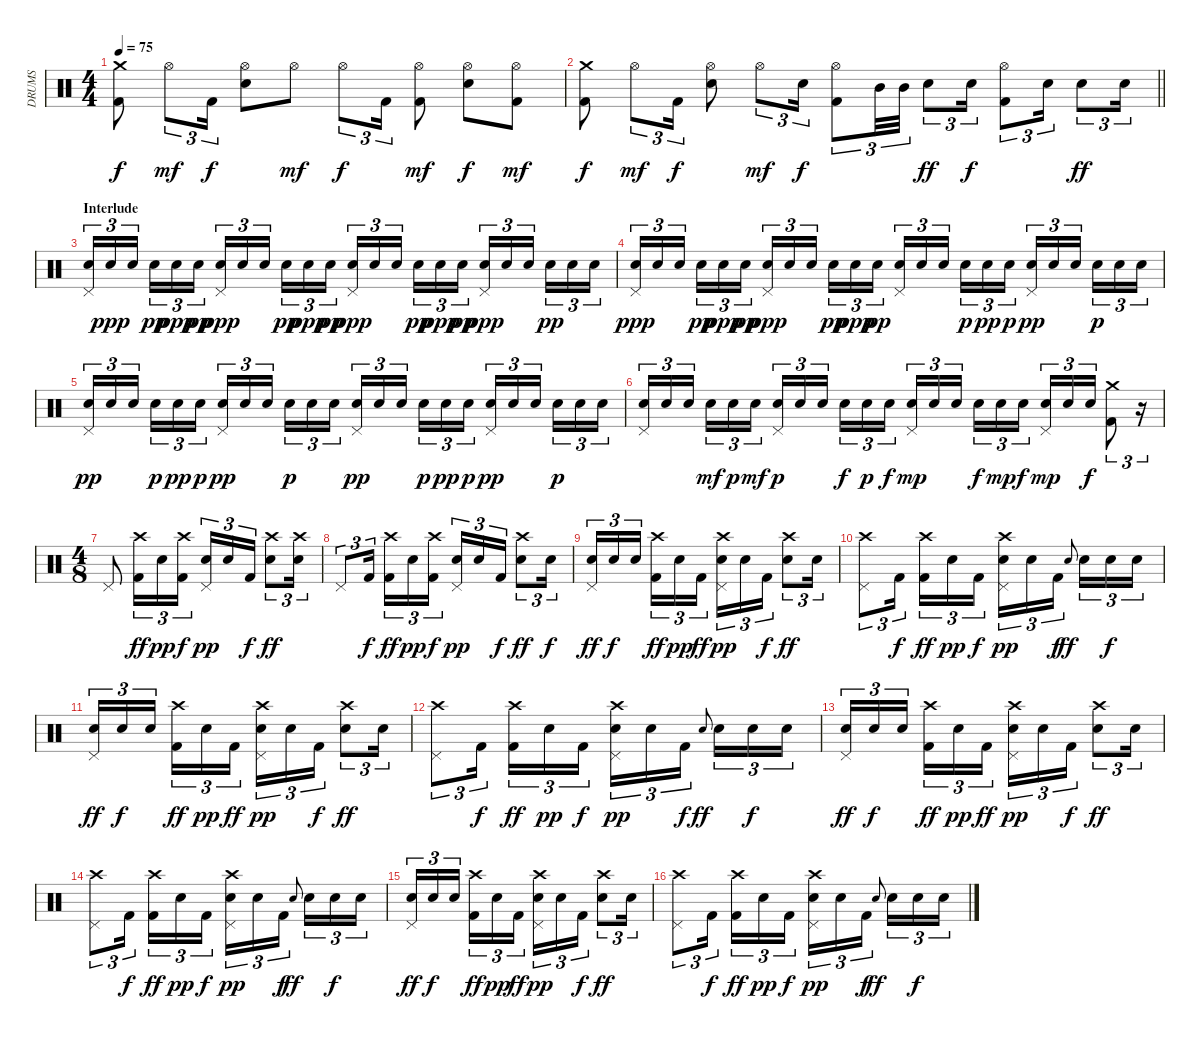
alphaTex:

\track ("DRUMS" "DRUMS") {instrument percussion}
\staff {score}
\articulation defaults
\ts (4 4)
\tempo 75
\clef neutral
\ks c
("Crash medium (hit)" "Kick (hit) 2").8{dy f} "Hi-Hat (open)".8{tu (3 2) dy mf} "Kick (hit) 2".16{tu (3 2) dy f} ("Hi-Hat (open)" "Snare (hit) 2").8 "Hi-Hat (open)".8{dy mf} "Hi-Hat (open)".8{tu (3 2) dy f} "Kick (hit) 2".16{tu (3 2)} ("Hi-Hat (open)" "Kick (hit) 2").8{dy mf} ("Hi-Hat (open)" "Snare (hit) 2").8{dy f} ("Hi-Hat (open)" "Kick (hit) 2").8{dy mf} |
\barLineRight lightlight
("Crash medium (hit)" "Kick (hit) 2").8{dy f} "Hi-Hat (open)".8{tu (3 2) dy mf} "Kick (hit) 2".16{tu (3 2) dy f} ("Hi-Hat (open)" "Snare (hit) 2").8 "Hi-Hat (open)".8{tu (3 2) dy mf} "Snare (hit) 2".16{tu (3 2) dy f} ("Hi-Hat (open)" "Kick (hit) 2").8{tu (3 2)} "Mid Tom (hit)".32{tu (3 2)} "Mid Tom (hit)".32{tu (3 2)} "Electric Snare (hit)".8{tu (3 2) dy ff} "Snare (hit) 2".16{tu (3 2) dy f} ("Hi-Hat (open)" "Kick (hit) 2").8{tu (3 2)} "Snare (hit) 2".16{tu (3 2)} "Electric Snare (hit)".8{tu (3 2) dy ff} "Snare (hit) 2".16{tu (3 2)} |
\section ("" "Interlude")
("Pedal Hi-Hat (hit)" "Electric Snare (hit)").16{tu (3 2)} "Snare (hit) 2".16{tu (3 2) dy ppp} "Electric Snare (hit)".16{tu (3 2) beam splitsecondary} "Snare (hit) 2".16{tu (3 2) dy pp} "Electric Snare (hit)".16{tu (3 2) dy ppp} "Snare (hit) 2".16{tu (3 2) dy pp} ("Pedal Hi-Hat (hit)" "Electric Snare (hit)").16{tu (3 2) dy ppp} "Snare (hit) 2".16{tu (3 2)} "Electric Snare (hit)".16{tu (3 2) beam splitsecondary} "Snare (hit) 2".16{tu (3 2) dy pp} "Electric Snare (hit)".16{tu (3 2) dy ppp} "Snare (hit) 2".16{tu (3 2) dy pp} ("Pedal Hi-Hat (hit)" "Electric Snare (hit)").16{tu (3 2) dy ppp} "Snare (hit) 2".16{tu (3 2)} "Electric Snare (hit)".16{tu (3 2) beam splitsecondary} "Snare (hit) 2".16{tu (3 2) dy pp} "Electric Snare (hit)".16{tu (3 2) dy ppp} "Snare (hit) 2".16{tu (3 2) dy pp} ("Pedal Hi-Hat (hit)" "Electric Snare (hit)").16{tu (3 2) dy ppp} "Snare (hit) 2".16{tu (3 2)} "Electric Snare (hit)".16{tu (3 2) beam splitsecondary} "Snare (hit) 2".16{tu (3 2) dy pp} "Electric Snare (hit)".16{tu (3 2)} "Snare (hit) 2".16{tu (3 2)} |
("Pedal Hi-Hat (hit)" "Electric Snare (hit)").16{tu (3 2) dy ppp} "Snare (hit) 2".16{tu (3 2)} "Electric Snare (hit)".16{tu (3 2) beam splitsecondary} "Snare (hit) 2".16{tu (3 2) dy pp} "Electric Snare (hit)".16{tu (3 2) dy ppp} "Snare (hit) 2".16{tu (3 2) dy pp} ("Pedal Hi-Hat (hit)" "Electric Snare (hit)").16{tu (3 2) dy ppp} "Snare (hit) 2".16{tu (3 2)} "Electric Snare (hit)".16{tu (3 2) beam splitsecondary} "Snare (hit) 2".16{tu (3 2) dy pp} "Electric Snare (hit)".16{tu (3 2) dy ppp} "Snare (hit) 2".16{tu (3 2) dy pp} ("Pedal Hi-Hat (hit)" "Electric Snare (hit)").16{tu (3 2)} "Snare (hit) 2".16{tu (3 2)} "Electric Snare (hit)".16{tu (3 2) beam splitsecondary} "Snare (hit) 2".16{tu (3 2) dy p} "Electric Snare (hit)".16{tu (3 2) dy pp} "Snare (hit) 2".16{tu (3 2) dy p} ("Pedal Hi-Hat (hit)" "Electric Snare (hit)").16{tu (3 2) dy pp} "Snare (hit) 2".16{tu (3 2)} "Electric Snare (hit)".16{tu (3 2) beam splitsecondary} "Snare (hit) 2".16{tu (3 2) dy p} "Electric Snare (hit)".16{tu (3 2)} "Snare (hit) 2".16{tu (3 2)} |
("Pedal Hi-Hat (hit)" "Electric Snare (hit)").16{tu (3 2) dy pp} "Snare (hit) 2".16{tu (3 2)} "Electric Snare (hit)".16{tu (3 2) beam splitsecondary} "Snare (hit) 2".16{tu (3 2) dy p} "Electric Snare (hit)".16{tu (3 2) dy pp} "Snare (hit) 2".16{tu (3 2) dy p} ("Pedal Hi-Hat (hit)" "Electric Snare (hit)").16{tu (3 2) dy pp} "Snare (hit) 2".16{tu (3 2)} "Electric Snare (hit)".16{tu (3 2) beam splitsecondary} "Snare (hit) 2".16{tu (3 2) dy p} "Electric Snare (hit)".16{tu (3 2)} "Snare (hit) 2".16{tu (3 2)} ("Pedal Hi-Hat (hit)" "Electric Snare (hit)").16{tu (3 2) dy pp} "Snare (hit) 2".16{tu (3 2)} "Electric Snare (hit)".16{tu (3 2) beam splitsecondary} "Snare (hit) 2".16{tu (3 2) dy p} "Electric Snare (hit)".16{tu (3 2) dy pp} "Snare (hit) 2".16{tu (3 2) dy p} ("Pedal Hi-Hat (hit)" "Electric Snare (hit)").16{tu (3 2) dy pp} "Snare (hit) 2".16{tu (3 2)} "Electric Snare (hit)".16{tu (3 2) beam splitsecondary} "Snare (hit) 2".16{tu (3 2) dy p} "Electric Snare (hit)".16{tu (3 2)} "Snare (hit) 2".16{tu (3 2)} |
("Pedal Hi-Hat (hit)" "Electric Snare (hit)").16{tu (3 2)} "Snare (hit) 2".16{tu (3 2)} "Electric Snare (hit)".16{tu (3 2) beam splitsecondary} "Snare (hit) 2".16{tu (3 2) dy mf} "Electric Snare (hit)".16{tu (3 2) dy p} "Snare (hit) 2".16{tu (3 2) dy mf} ("Pedal Hi-Hat (hit)" "Electric Snare (hit)").16{tu (3 2) dy p} "Snare (hit) 2".16{tu (3 2)} "Electric Snare (hit)".16{tu (3 2) beam splitsecondary} "Snare (hit) 2".16{tu (3 2) dy f} "Electric Snare (hit)".16{tu (3 2) dy p} "Snare (hit) 2".16{tu (3 2) dy f} ("Pedal Hi-Hat (hit)" "Electric Snare (hit)").16{tu (3 2) dy mp} "Snare (hit) 2".16{tu (3 2)} "Electric Snare (hit)".16{tu (3 2) beam splitsecondary} "Snare (hit) 2".16{tu (3 2) dy f} "Electric Snare (hit)".16{tu (3 2) dy mp} "Snare (hit) 2".16{tu (3 2) dy f} ("Pedal Hi-Hat (hit)" "Electric Snare (hit)").16{tu (3 2) dy mp} "Snare (hit) 2".16{tu (3 2)} "Electric Snare (hit)".16{tu (3 2) dy f} ("Crash medium (hit)" "Kick (hit) 2").8{tu (3 2)} r.16{tu (3 2)} |
\ts (4 8)
"Pedal Hi-Hat (hit)".8 ("Crash high (hit)" "Kick (hit) 2").16{tu (3 2) dy ff} "Snare (hit) 2".16{tu (3 2) dy pp} ("Crash high (hit)" "Kick (hit) 2").16{tu (3 2) dy f} ("Pedal Hi-Hat (hit)" "Snare (hit) 2").16{tu (3 2) dy pp} "Snare (hit) 2".16{tu (3 2)} "Kick (hit) 2".16{tu (3 2) dy f} ("Crash high (hit)" "Snare (hit) 2").8{tu (3 2) dy ff} ("Crash high (hit)" "Snare (hit) 2").16{tu (3 2)} |
"Pedal Hi-Hat (hit)".8{tu (3 2)} "Kick (hit) 2".16{tu (3 2) dy f} ("Crash high (hit)" "Kick (hit) 2").16{tu (3 2) dy ff} "Snare (hit) 2".16{tu (3 2) dy pp} ("Crash high (hit)" "Kick (hit) 2").16{tu (3 2) dy f} ("Pedal Hi-Hat (hit)" "Snare (hit) 2").16{tu (3 2) dy pp} "Snare (hit) 2".16{tu (3 2)} "Kick (hit) 2".16{tu (3 2) dy f} ("Crash high (hit)" "Snare (hit) 2").8{tu (3 2) dy ff} "Electric Snare (hit)".16{tu (3 2) dy f} |
("Pedal Hi-Hat (hit)" "Snare (hit) 2").16{tu (3 2) dy ff} "Electric Snare (hit)".16{tu (3 2) dy f} "Snare (hit) 2".16{tu (3 2)} ("Crash high (hit)" "Kick (hit) 2").16{tu (3 2) dy ff} "Snare (hit) 2".16{tu (3 2) dy pp} "Kick (hit) 2".16{tu (3 2) dy ff} ("Crash high (hit)" "Pedal Hi-Hat (hit)" "Snare (hit) 2").16{tu (3 2) dy pp} "Snare (hit) 2".16{tu (3 2)} "Kick (hit) 2".16{tu (3 2) dy f} ("Crash high (hit)" "Snare (hit) 2").8{tu (3 2) dy ff} "Snare (hit) 2".16{tu (3 2)} |
("Crash high (hit)" "Pedal Hi-Hat (hit)").8{tu (3 2)} "Kick (hit) 2".16{tu (3 2) dy f} ("Crash high (hit)" "Kick (hit) 2").16{tu (3 2) dy ff} "Snare (hit) 2".16{tu (3 2) dy pp} "Kick (hit) 2".16{tu (3 2) dy f} ("Crash high (hit)" "Pedal Hi-Hat (hit)" "Snare (hit) 2").16{tu (3 2) dy pp} "Snare (hit) 2".16{tu (3 2)} "Kick (hit) 2".16{tu (3 2) dy f} "Electric Snare (hit)".8{gr onbeat dy ff} "Snare (hit) 2".16{tu (3 2)} "Snare (hit) 2".16{tu (3 2) dy f} "Electric Snare (hit)".16{tu (3 2)} |
("Pedal Hi-Hat (hit)" "Snare (hit) 2").16{tu (3 2) dy ff} "Electric Snare (hit)".16{tu (3 2) dy f} "Snare (hit) 2".16{tu (3 2)} ("Crash high (hit)" "Kick (hit) 2").16{tu (3 2) dy ff} "Snare (hit) 2".16{tu (3 2) dy pp} "Kick (hit) 2".16{tu (3 2) dy ff} ("Crash high (hit)" "Pedal Hi-Hat (hit)" "Snare (hit) 2").16{tu (3 2) dy pp} "Snare (hit) 2".16{tu (3 2)} "Kick (hit) 2".16{tu (3 2) dy f} ("Crash high (hit)" "Snare (hit) 2").8{tu (3 2) dy ff} "Snare (hit) 2".16{tu (3 2)} |
("Crash high (hit)" "Pedal Hi-Hat (hit)").8{tu (3 2)} "Kick (hit) 2".16{tu (3 2) dy f} ("Crash high (hit)" "Kick (hit) 2").16{tu (3 2) dy ff} "Snare (hit) 2".16{tu (3 2) dy pp} "Kick (hit) 2".16{tu (3 2) dy f} ("Crash high (hit)" "Pedal Hi-Hat (hit)" "Snare (hit) 2").16{tu (3 2) dy pp} "Snare (hit) 2".16{tu (3 2)} "Kick (hit) 2".16{tu (3 2) dy f} "Electric Snare (hit)".8{gr onbeat dy ff} "Snare (hit) 2".16{tu (3 2)} "Snare (hit) 2".16{tu (3 2) dy f} "Electric Snare (hit)".16{tu (3 2)} |
("Pedal Hi-Hat (hit)" "Snare (hit) 2").16{tu (3 2) dy ff} "Electric Snare (hit)".16{tu (3 2) dy f} "Snare (hit) 2".16{tu (3 2)} ("Crash high (hit)" "Kick (hit) 2").16{tu (3 2) dy ff} "Snare (hit) 2".16{tu (3 2) dy pp} "Kick (hit) 2".16{tu (3 2) dy ff} ("Crash high (hit)" "Pedal Hi-Hat (hit)" "Snare (hit) 2").16{tu (3 2) dy pp} "Snare (hit) 2".16{tu (3 2)} "Kick (hit) 2".16{tu (3 2) dy f} ("Crash high (hit)" "Snare (hit) 2").8{tu (3 2) dy ff} "Snare (hit) 2".16{tu (3 2)} |
("Crash high (hit)" "Pedal Hi-Hat (hit)").8{tu (3 2)} "Kick (hit) 2".16{tu (3 2) dy f} ("Crash high (hit)" "Kick (hit) 2").16{tu (3 2) dy ff} "Snare (hit) 2".16{tu (3 2) dy pp} "Kick (hit) 2".16{tu (3 2) dy f} ("Crash high (hit)" "Pedal Hi-Hat (hit)" "Snare (hit) 2").16{tu (3 2) dy pp} "Snare (hit) 2".16{tu (3 2)} "Kick (hit) 2".16{tu (3 2) dy f} "Electric Snare (hit)".8{gr onbeat dy ff} "Snare (hit) 2".16{tu (3 2)} "Snare (hit) 2".16{tu (3 2) dy f} "Electric Snare (hit)".16{tu (3 2)} |
("Pedal Hi-Hat (hit)" "Snare (hit) 2").16{tu (3 2) dy ff} "Electric Snare (hit)".16{tu (3 2) dy f} "Snare (hit) 2".16{tu (3 2)} ("Crash high (hit)" "Kick (hit) 2").16{tu (3 2) dy ff} "Snare (hit) 2".16{tu (3 2) dy pp} "Kick (hit) 2".16{tu (3 2) dy ff} ("Crash high (hit)" "Pedal Hi-Hat (hit)" "Snare (hit) 2").16{tu (3 2) dy pp} "Snare (hit) 2".16{tu (3 2)} "Kick (hit) 2".16{tu (3 2) dy f} ("Crash high (hit)" "Snare (hit) 2").8{tu (3 2) dy ff} "Snare (hit) 2".16{tu (3 2)} |
("Crash high (hit)" "Pedal Hi-Hat (hit)").8{tu (3 2)} "Kick (hit) 2".16{tu (3 2) dy f} ("Crash high (hit)" "Kick (hit) 2").16{tu (3 2) dy ff} "Snare (hit) 2".16{tu (3 2) dy pp} "Kick (hit) 2".16{tu (3 2) dy f} ("Crash high (hit)" "Pedal Hi-Hat (hit)" "Snare (hit) 2").16{tu (3 2) dy pp} "Snare (hit) 2".16{tu (3 2)} "Kick (hit) 2".16{tu (3 2) dy f} "Electric Snare (hit)".8{gr onbeat dy ff} "Snare (hit) 2".16{tu (3 2)} "Snare (hit) 2".16{tu (3 2) dy f} "Electric Snare (hit)".16{tu (3 2)}
